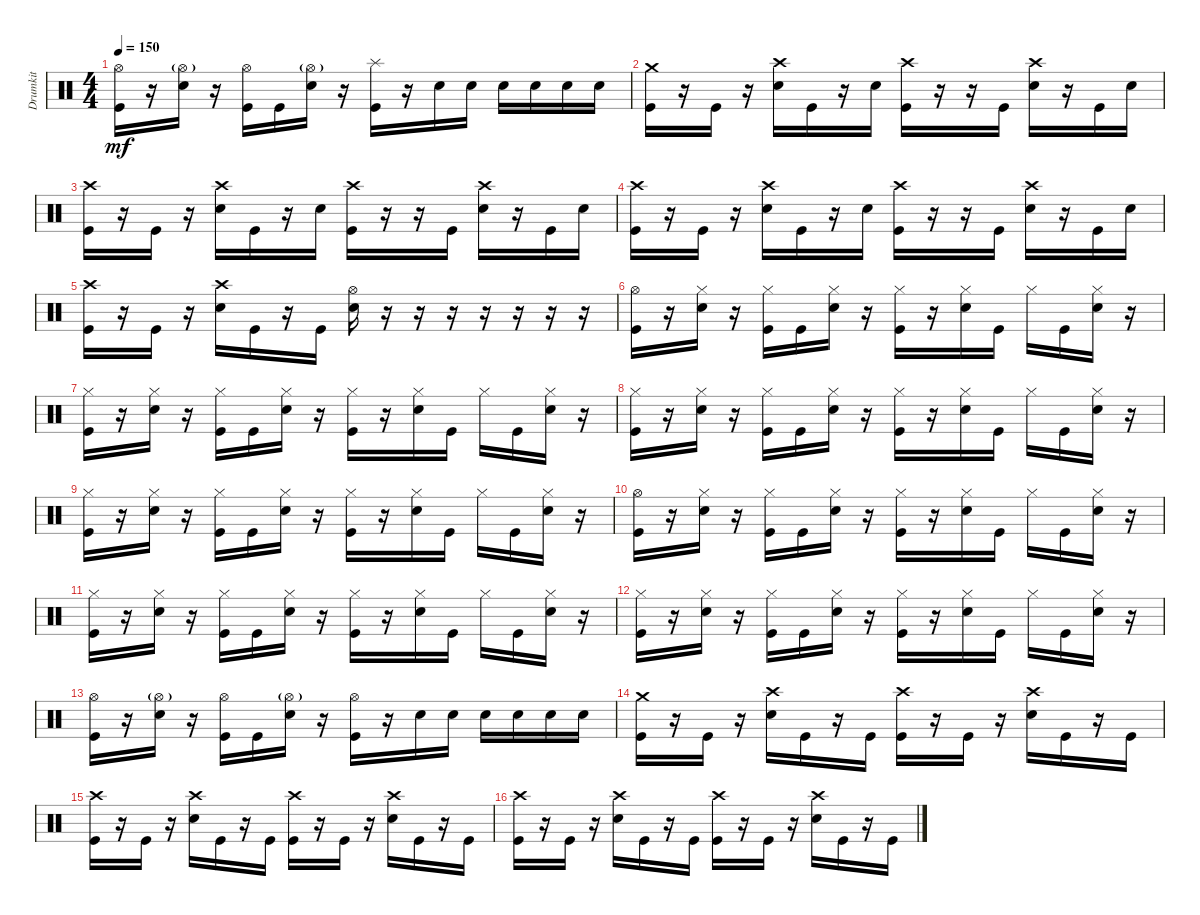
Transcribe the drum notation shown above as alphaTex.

\track ("Drumkit" "Drumkit") {instrument percussion}
\staff {score}
\articulation defaults
\ts (4 4)
\tempo 150
\clef neutral
\ks c
("Kick (hit)" "Hi-Hat (open)").16{dy mf} r.16 ("Snare (hit) 2" "Hi-Hat (open)"{g}).16 r.16 ("Kick (hit)" "Hi-Hat (open)").16 "Kick (hit)".16 ("Snare (hit) 2" "Hi-Hat (open)"{g}).16 r.16 ("Kick (hit)" "Splash (hit)").16 r.16 "Snare (hit) 2".16 "Snare (hit) 2".16 "Snare (hit) 2".16 "Snare (hit) 2".16 "Snare (hit) 2".16 "Snare (hit) 2".16 |
("Crash medium (hit)" "Kick (hit)").16 r.16 "Kick (hit)".16 r.16 ("Crash high (hit)" "Snare (hit) 2").16 "Kick (hit)".16 r.16 "Snare (hit) 2".16 ("Crash high (hit)" "Kick (hit)").16 r.16 r.16 "Kick (hit)".16 ("Crash high (hit)" "Snare (hit) 2").16 r.16 "Kick (hit)".16 "Snare (hit) 2".16 |
("Kick (hit)" "Crash high (hit)").16 r.16 "Kick (hit)".16 r.16 ("Crash high (hit)" "Snare (hit) 2").16 "Kick (hit)".16 r.16 "Snare (hit) 2".16 ("Crash high (hit)" "Kick (hit)").16 r.16 r.16 "Kick (hit)".16 ("Crash high (hit)" "Snare (hit) 2").16 r.16 "Kick (hit)".16 "Snare (hit) 2".16 |
("Kick (hit)" "Crash high (hit)").16 r.16 "Kick (hit)".16 r.16 ("Crash high (hit)" "Snare (hit) 2").16 "Kick (hit)".16 r.16 "Snare (hit) 2".16 ("Crash high (hit)" "Kick (hit)").16 r.16 r.16 "Kick (hit)".16 ("Crash high (hit)" "Snare (hit) 2").16 r.16 "Kick (hit)".16 "Snare (hit) 2".16 |
("Kick (hit)" "Crash high (hit)").16 r.16 "Kick (hit)".16 r.16 ("Crash high (hit)" "Snare (hit) 2").16 "Kick (hit)".16 r.16 "Kick (hit)".16 ("Snare (hit) 2" "Hi-Hat (open)").16 r.16 r.16 r.16 r.16 r.16 r.16 r.16 |
("Hi-Hat (open)" "Kick (hit)").16 r.16 ("Hi-Hat (closed)" "Snare (hit) 2").16 r.16 ("Hi-Hat (closed)" "Kick (hit)").16 "Kick (hit)".16 ("Hi-Hat (closed)" "Snare (hit) 2").16 r.16 ("Hi-Hat (closed)" "Kick (hit)").16 r.16 ("Hi-Hat (closed)" "Snare (hit) 2").16 "Kick (hit)".16 "Hi-Hat (closed)".16 "Kick (hit)".16 ("Hi-Hat (closed)" "Snare (hit) 2").16 r.16 |
("Kick (hit)" "Hi-Hat (closed)").16 r.16 ("Hi-Hat (closed)" "Snare (hit) 2").16 r.16 ("Hi-Hat (closed)" "Kick (hit)").16 "Kick (hit)".16 ("Hi-Hat (closed)" "Snare (hit) 2").16 r.16 ("Hi-Hat (closed)" "Kick (hit)").16 r.16 ("Hi-Hat (closed)" "Snare (hit) 2").16 "Kick (hit)".16 "Hi-Hat (closed)".16 "Kick (hit)".16 ("Hi-Hat (closed)" "Snare (hit) 2").16 r.16 |
("Kick (hit)" "Hi-Hat (closed)").16 r.16 ("Hi-Hat (closed)" "Snare (hit) 2").16 r.16 ("Hi-Hat (closed)" "Kick (hit)").16 "Kick (hit)".16 ("Hi-Hat (closed)" "Snare (hit) 2").16 r.16 ("Hi-Hat (closed)" "Kick (hit)").16 r.16 ("Hi-Hat (closed)" "Snare (hit) 2").16 "Kick (hit)".16 "Hi-Hat (closed)".16 "Kick (hit)".16 ("Hi-Hat (closed)" "Snare (hit) 2").16 r.16 |
("Kick (hit)" "Hi-Hat (closed)").16 r.16 ("Hi-Hat (closed)" "Snare (hit) 2").16 r.16 ("Hi-Hat (closed)" "Kick (hit)").16 "Kick (hit)".16 ("Hi-Hat (closed)" "Snare (hit) 2").16 r.16 ("Hi-Hat (closed)" "Kick (hit)").16 r.16 ("Hi-Hat (closed)" "Snare (hit) 2").16 "Kick (hit)".16 "Hi-Hat (closed)".16 "Kick (hit)".16 ("Hi-Hat (closed)" "Snare (hit) 2").16 r.16 |
("Kick (hit)" "Hi-Hat (open)").16 r.16 ("Hi-Hat (closed)" "Snare (hit) 2").16 r.16 ("Hi-Hat (closed)" "Kick (hit)").16 "Kick (hit)".16 ("Hi-Hat (closed)" "Snare (hit) 2").16 r.16 ("Hi-Hat (closed)" "Kick (hit)").16 r.16 ("Hi-Hat (closed)" "Snare (hit) 2").16 "Kick (hit)".16 "Hi-Hat (closed)".16 "Kick (hit)".16 ("Hi-Hat (closed)" "Snare (hit) 2").16 r.16 |
("Kick (hit)" "Hi-Hat (closed)").16 r.16 ("Hi-Hat (closed)" "Snare (hit) 2").16 r.16 ("Hi-Hat (closed)" "Kick (hit)").16 "Kick (hit)".16 ("Hi-Hat (closed)" "Snare (hit) 2").16 r.16 ("Hi-Hat (closed)" "Kick (hit)").16 r.16 ("Hi-Hat (closed)" "Snare (hit) 2").16 "Kick (hit)".16 "Hi-Hat (closed)".16 "Kick (hit)".16 ("Hi-Hat (closed)" "Snare (hit) 2").16 r.16 |
("Kick (hit)" "Hi-Hat (closed)").16 r.16 ("Hi-Hat (closed)" "Snare (hit) 2").16 r.16 ("Hi-Hat (closed)" "Kick (hit)").16 "Kick (hit)".16 ("Hi-Hat (closed)" "Snare (hit) 2").16 r.16 ("Hi-Hat (closed)" "Kick (hit)").16 r.16 ("Hi-Hat (closed)" "Snare (hit) 2").16 "Kick (hit)".16 "Hi-Hat (closed)".16 "Kick (hit)".16 ("Hi-Hat (closed)" "Snare (hit) 2").16 r.16 |
("Kick (hit)" "Hi-Hat (open)").16 r.16 ("Snare (hit) 2" "Hi-Hat (open)"{g}).16 r.16 ("Kick (hit)" "Hi-Hat (open)").16 "Kick (hit)".16 ("Snare (hit) 2" "Hi-Hat (open)"{g}).16 r.16 ("Kick (hit)" "Hi-Hat (open)").16 r.16 "Snare (hit) 2".16 "Snare (hit) 2".16 "Snare (hit) 2".16 "Snare (hit) 2".16 "Snare (hit) 2".16 "Snare (hit) 2".16 |
("Kick (hit)" "Crash medium (hit)").16 r.16 "Kick (hit)".16 r.16 ("Snare (hit) 2" "Crash high (hit)").16 "Kick (hit)".16 r.16 "Kick (hit)".16 ("Kick (hit)" "Crash high (hit)").16 r.16 "Kick (hit)".16 r.16 ("Snare (hit) 2" "Crash high (hit)").16 "Kick (hit)".16 r.16 "Kick (hit)".16 |
("Kick (hit)" "Crash high (hit)").16 r.16 "Kick (hit)".16 r.16 ("Snare (hit) 2" "Crash high (hit)").16 "Kick (hit)".16 r.16 "Kick (hit)".16 ("Kick (hit)" "Crash high (hit)").16 r.16 "Kick (hit)".16 r.16 ("Snare (hit) 2" "Crash high (hit)").16 "Kick (hit)".16 r.16 "Kick (hit)".16 |
("Crash high (hit)" "Kick (hit)").16 r.16 "Kick (hit)".16 r.16 ("Snare (hit) 2" "Crash high (hit)").16 "Kick (hit)".16 r.16 "Kick (hit)".16 ("Kick (hit)" "Crash high (hit)").16 r.16 "Kick (hit)".16 r.16 ("Snare (hit) 2" "Crash high (hit)").16 "Kick (hit)".16 r.16 "Kick (hit)".16
